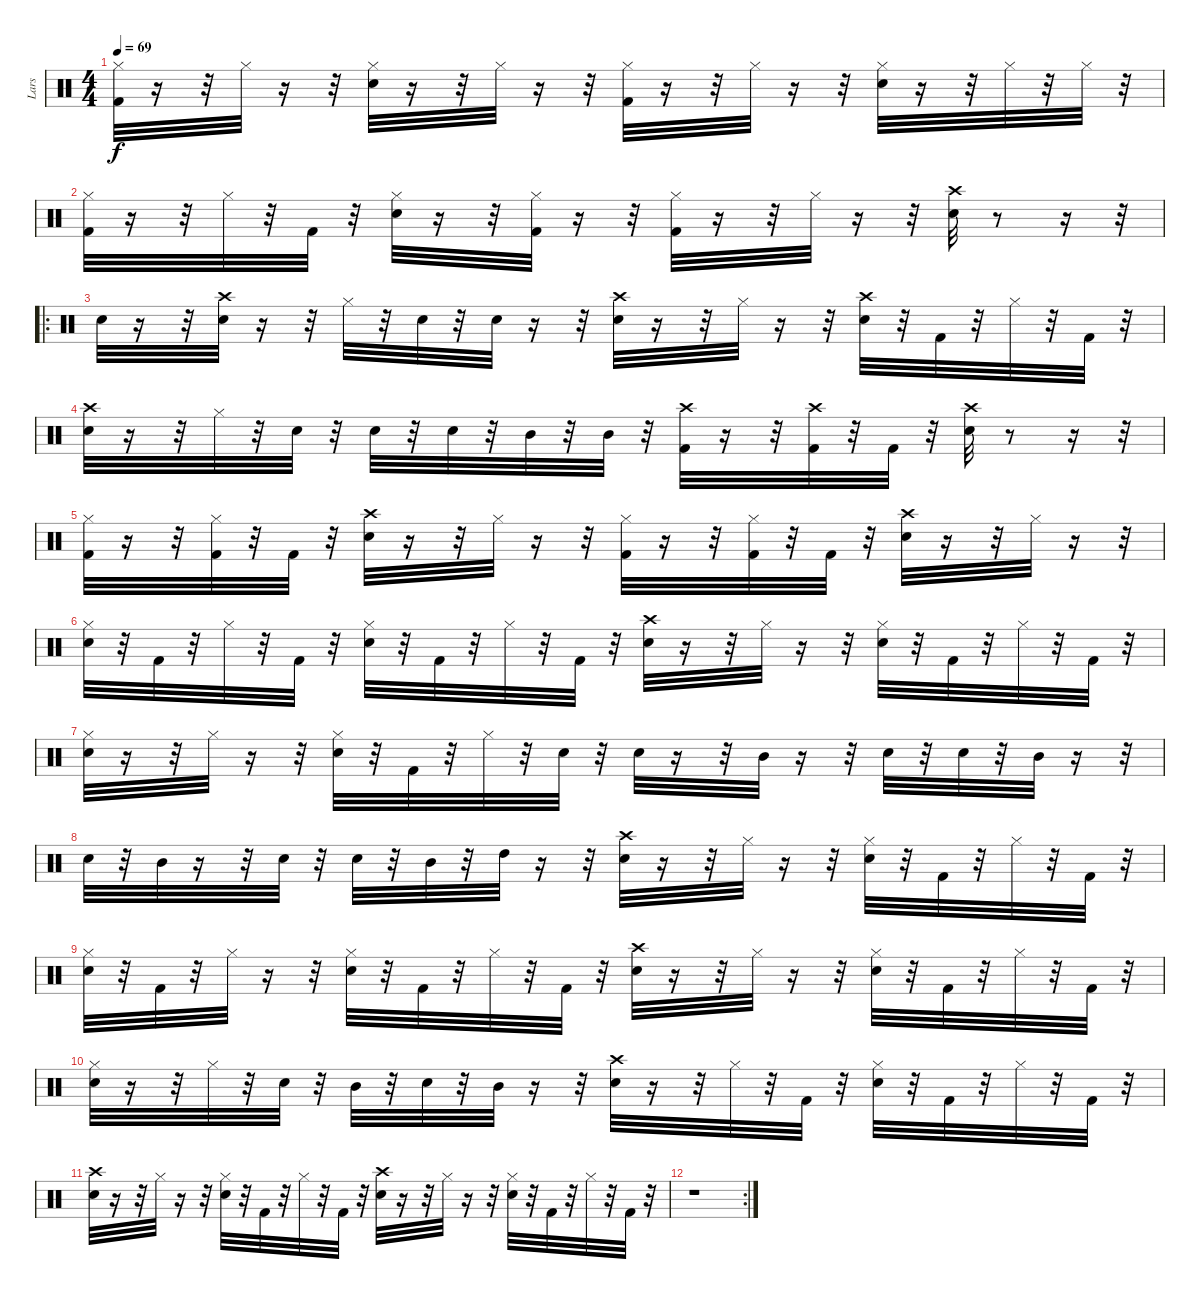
\track ("Lars" "Lars") {instrument percussion}
\staff {score}
\articulation defaults
\ts (4 4)
\tempo 69
\clef neutral
\ks c
("Kick (hit) 2" "Hi-Hat (closed)").32{dy f} r.16 r.32 "Hi-Hat (closed)".32 r.16 r.32 ("Snare (hit) 2" "Hi-Hat (closed)").32 r.16 r.32 "Hi-Hat (closed)".32 r.16 r.32 ("Hi-Hat (closed)" "Kick (hit) 2").32 r.16 r.32 "Hi-Hat (closed)".32 r.16 r.32 ("Snare (hit) 2" "Hi-Hat (closed)").32 r.16 r.32 "Hi-Hat (closed)".32 r.32 "Hi-Hat (closed)".32 r.32 |
("Hi-Hat (closed)" "Kick (hit) 2").32 r.16 r.32 "Hi-Hat (closed)".32 r.32 "Kick (hit) 2".32 r.32 ("Snare (hit) 2" "Hi-Hat (closed)").32 r.16 r.32 ("Hi-Hat (closed)" "Kick (hit) 2").32 r.16 r.32 ("Hi-Hat (closed)" "Kick (hit) 2").32 r.16 r.32 "Hi-Hat (closed)".32 r.16 r.32 ("Crash high (hit)" "Snare (hit) 2").32 r.8 r.16 r.32 |
\ro "Snare (hit) 2".32
r.16 r.32 ("Crash high (hit)" "Snare (hit) 2").32 r.16 r.32 "Hi-Hat (closed)".32 r.32 "Snare (hit) 2".32 r.32 "Snare (hit) 2".32 r.16 r.32 ("Crash high (hit)" "Snare (hit) 2").32 r.16 r.32 "Hi-Hat (closed)".32 r.16 r.32 ("Crash high (hit)" "Snare (hit) 2").32 r.32 "Kick (hit) 2".32 r.32 "Hi-Hat (closed)".32 r.32 "Kick (hit) 2".32 r.32 |
("Crash high (hit)" "Snare (hit) 2").32 r.16 r.32 "Hi-Hat (closed)".32 r.32 "Snare (hit) 2".32 r.32 "Snare (hit) 2".32 r.32 "Snare (hit) 2".32 r.32 "Mid Tom (hit)".32 r.32 "Mid Tom (hit)".32 r.32 ("Crash high (hit)" "Kick (hit) 2").32 r.16 r.32 ("Crash high (hit)" "Kick (hit) 2").32 r.32 "Kick (hit) 2".32 r.32 ("Crash high (hit)" "Snare (hit) 2").32 r.8 r.16 r.32 |
("Hi-Hat (closed)" "Kick (hit) 2").32 r.16 r.32 ("Hi-Hat (closed)" "Kick (hit) 2").32 r.32 "Kick (hit) 2".32 r.32 ("Crash high (hit)" "Snare (hit) 2").32 r.16 r.32 "Hi-Hat (closed)".32 r.16 r.32 ("Hi-Hat (closed)" "Kick (hit) 2").32 r.16 r.32 ("Hi-Hat (closed)" "Kick (hit) 2").32 r.32 "Kick (hit) 2".32 r.32 ("Crash high (hit)" "Snare (hit) 2").32 r.16 r.32 "Hi-Hat (closed)".32 r.16 r.32 |
("Snare (hit) 2" "Hi-Hat (closed)").32 r.32 "Kick (hit) 2".32 r.32 "Hi-Hat (closed)".32 r.32 "Kick (hit) 2".32 r.32 ("Snare (hit) 2" "Hi-Hat (closed)").32 r.32 "Kick (hit) 2".32 r.32 "Hi-Hat (closed)".32 r.32 "Kick (hit) 2".32 r.32 ("Crash high (hit)" "Snare (hit) 2").32 r.16 r.32 "Hi-Hat (closed)".32 r.16 r.32 ("Snare (hit) 2" "Hi-Hat (closed)").32 r.32 "Kick (hit) 2".32 r.32 "Hi-Hat (closed)".32 r.32 "Kick (hit) 2".32 r.32 |
("Hi-Hat (closed)" "Snare (hit) 2").32 r.16 r.32 "Hi-Hat (closed)".32 r.16 r.32 ("Hi-Hat (closed)" "Snare (hit) 2").32 r.32 "Kick (hit) 2".32 r.32 "Hi-Hat (closed)".32 r.32 "Snare (hit) 2".32 r.32 "Snare (hit) 2".32 r.16 r.32 "Mid Tom (hit)".32 r.16 r.32 "Snare (hit) 2".32 r.32 "Snare (hit) 2".32 r.32 "Mid Tom (hit)".32 r.16 r.32 |
"Snare (hit) 2".32 r.32 "Mid Tom (hit)".32 r.16 r.32 "Snare (hit) 2".32 r.32 "Snare (hit) 2".32 r.32 "Mid Tom (hit)".32 r.32 "High Tom (hit)".32 r.16 r.32 ("Crash high (hit)" "Snare (hit) 2").32 r.16 r.32 "Hi-Hat (closed)".32 r.16 r.32 ("Snare (hit) 2" "Hi-Hat (closed)").32 r.32 "Kick (hit) 2".32 r.32 "Hi-Hat (closed)".32 r.32 "Kick (hit) 2".32 r.32 |
("Hi-Hat (closed)" "Snare (hit) 2").32 r.32 "Kick (hit) 2".32 r.32 "Hi-Hat (closed)".32 r.16 r.32 ("Snare (hit) 2" "Hi-Hat (closed)").32 r.32 "Kick (hit) 2".32 r.32 "Hi-Hat (closed)".32 r.32 "Kick (hit) 2".32 r.32 ("Crash high (hit)" "Snare (hit) 2").32 r.16 r.32 "Hi-Hat (closed)".32 r.16 r.32 ("Snare (hit) 2" "Hi-Hat (closed)").32 r.32 "Kick (hit) 2".32 r.32 "Hi-Hat (closed)".32 r.32 "Kick (hit) 2".32 r.32 |
("Hi-Hat (closed)" "Snare (hit) 2").32 r.16 r.32 "Hi-Hat (closed)".32 r.32 "Snare (hit) 2".32 r.32 "Mid Tom (hit)".32 r.32 "Snare (hit) 2".32 r.32 "Mid Tom (hit)".32 r.16 r.32 ("Crash high (hit)" "Snare (hit) 2").32 r.16 r.32 "Hi-Hat (closed)".32 r.32 "Kick (hit) 2".32 r.32 ("Snare (hit) 2" "Hi-Hat (closed)").32 r.32 "Kick (hit) 2".32 r.32 "Hi-Hat (closed)".32 r.32 "Kick (hit) 2".32 r.32 |
("Crash high (hit)" "Snare (hit) 2").32 r.16 r.32 "Hi-Hat (closed)".32 r.16 r.32 ("Snare (hit) 2" "Hi-Hat (closed)").32 r.32 "Kick (hit) 2".32 r.32 "Hi-Hat (closed)".32 r.32 "Kick (hit) 2".32 r.32 ("Crash high (hit)" "Snare (hit) 2").32 r.16 r.32 "Hi-Hat (closed)".32 r.16 r.32 ("Snare (hit) 2" "Hi-Hat (closed)").32 r.32 "Kick (hit) 2".32 r.32 "Hi-Hat (closed)".32 r.32 "Kick (hit) 2".32 r.32 |
\rc 2
r.1
